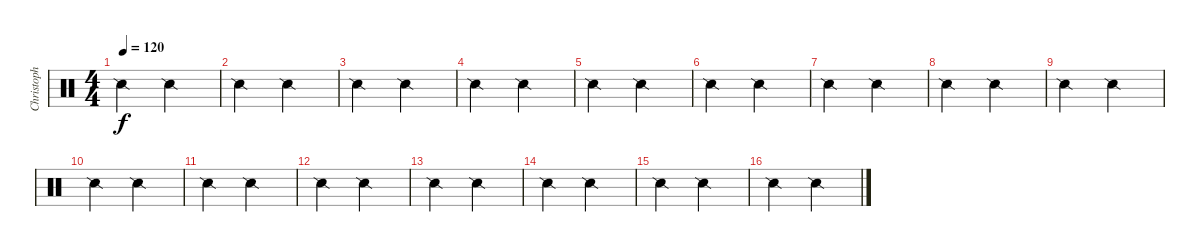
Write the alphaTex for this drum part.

\track ("Christoph \"Doom\" Schneider (Drums" "Christoph ") {instrument percussion}
\staff {score}
\articulation defaults
\ts (4 4)
\tempo 120
\clef neutral
\ks c "Snare (side stick) 2".2{dy f} "Snare (side stick) 2".2
|
"Snare (side stick) 2".2 "Snare (side stick) 2".2 |
"Snare (side stick) 2".2 "Snare (side stick) 2".2 |
"Snare (side stick) 2".2 "Snare (side stick) 2".2 |
"Snare (side stick) 2".2 "Snare (side stick) 2".2 |
"Snare (side stick) 2".2 "Snare (side stick) 2".2 |
"Snare (side stick) 2".2 "Snare (side stick) 2".2 |
"Snare (side stick) 2".2 "Snare (side stick) 2".2 |
"Snare (side stick) 2".2 "Snare (side stick) 2".2 |
"Snare (side stick) 2".2 "Snare (side stick) 2".2 |
"Snare (side stick) 2".2 "Snare (side stick) 2".2 |
"Snare (side stick) 2".2 "Snare (side stick) 2".2 |
"Snare (side stick) 2".2 "Snare (side stick) 2".2 |
"Snare (side stick) 2".2 "Snare (side stick) 2".2 |
"Snare (side stick) 2".2 "Snare (side stick) 2".2 |
"Snare (side stick) 2".2 "Snare (side stick) 2".2
